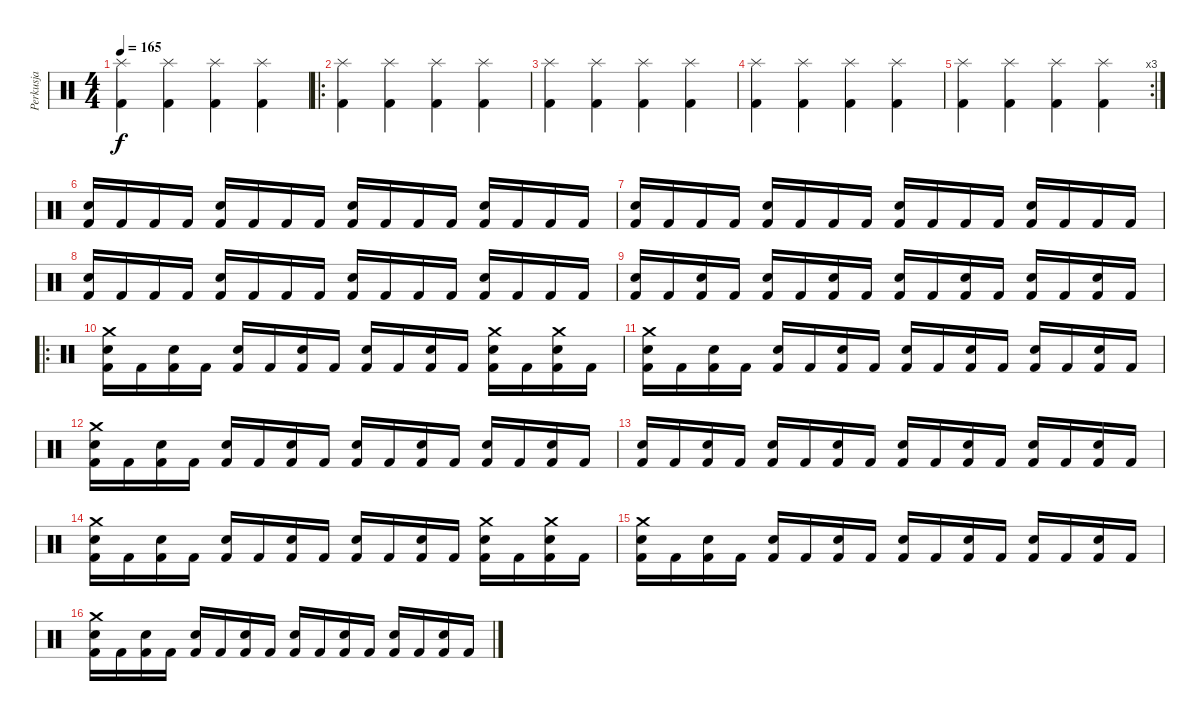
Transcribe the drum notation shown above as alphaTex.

\track ("Perkusja" "Perkusja") {instrument percussion}
\staff {score}
\articulation defaults
\ts (4 4)
\tempo 165
\clef neutral
\ks c
("Splash (hit)" "Kick (hit) 2").4{dy f} ("Splash (hit)" "Kick (hit) 2").4 ("Splash (hit)" "Kick (hit) 2").4 ("Splash (hit)" "Kick (hit) 2").4 |
\ro
("Splash (hit)" "Kick (hit) 2").4 ("Splash (hit)" "Kick (hit) 2").4 ("Splash (hit)" "Kick (hit) 2").4 ("Splash (hit)" "Kick (hit) 2").4 |
("Splash (hit)" "Kick (hit) 2").4 ("Splash (hit)" "Kick (hit) 2").4 ("Splash (hit)" "Kick (hit) 2").4 ("Splash (hit)" "Kick (hit) 2").4 |
("Splash (hit)" "Kick (hit) 2").4 ("Splash (hit)" "Kick (hit) 2").4 ("Splash (hit)" "Kick (hit) 2").4 ("Splash (hit)" "Kick (hit) 2").4 |
\rc 3
("Splash (hit)" "Kick (hit) 2").4 ("Splash (hit)" "Kick (hit) 2").4 ("Splash (hit)" "Kick (hit) 2").4 ("Splash (hit)" "Kick (hit) 2").4 |
("Snare (hit) 2" "Kick (hit) 2").16 "Kick (hit) 2".16 "Kick (hit) 2".16 "Kick (hit) 2".16 ("Snare (hit) 2" "Kick (hit) 2").16 "Kick (hit) 2".16 "Kick (hit) 2".16 "Kick (hit) 2".16 ("Snare (hit) 2" "Kick (hit) 2").16 "Kick (hit) 2".16 "Kick (hit) 2".16 "Kick (hit) 2".16 ("Snare (hit) 2" "Kick (hit) 2").16 "Kick (hit) 2".16 "Kick (hit) 2".16 "Kick (hit) 2".16 |
("Snare (hit) 2" "Kick (hit) 2").16 "Kick (hit) 2".16 "Kick (hit) 2".16 "Kick (hit) 2".16 ("Snare (hit) 2" "Kick (hit) 2").16 "Kick (hit) 2".16 "Kick (hit) 2".16 "Kick (hit) 2".16 ("Snare (hit) 2" "Kick (hit) 2").16 "Kick (hit) 2".16 "Kick (hit) 2".16 "Kick (hit) 2".16 ("Snare (hit) 2" "Kick (hit) 2").16 "Kick (hit) 2".16 "Kick (hit) 2".16 "Kick (hit) 2".16 |
("Snare (hit) 2" "Kick (hit) 2").16 "Kick (hit) 2".16 "Kick (hit) 2".16 "Kick (hit) 2".16 ("Snare (hit) 2" "Kick (hit) 2").16 "Kick (hit) 2".16 "Kick (hit) 2".16 "Kick (hit) 2".16 ("Snare (hit) 2" "Kick (hit) 2").16 "Kick (hit) 2".16 "Kick (hit) 2".16 "Kick (hit) 2".16 ("Snare (hit) 2" "Kick (hit) 2").16 "Kick (hit) 2".16 "Kick (hit) 2".16 "Kick (hit) 2".16 |
("Snare (hit) 2" "Kick (hit) 2").16 "Kick (hit) 2".16 ("Snare (hit) 2" "Kick (hit) 2").16 "Kick (hit) 2".16 ("Snare (hit) 2" "Kick (hit) 2").16 "Kick (hit) 2".16 ("Snare (hit) 2" "Kick (hit) 2").16 "Kick (hit) 2".16 ("Snare (hit) 2" "Kick (hit) 2").16 "Kick (hit) 2".16 ("Snare (hit) 2" "Kick (hit) 2").16 "Kick (hit) 2".16 ("Snare (hit) 2" "Kick (hit) 2").16 "Kick (hit) 2".16 ("Snare (hit) 2" "Kick (hit) 2").16 "Kick (hit) 2".16 |
\ro
("Crash medium (hit)" "Snare (hit) 2" "Kick (hit) 2").16 "Kick (hit) 2".16 ("Snare (hit) 2" "Kick (hit) 2").16 "Kick (hit) 2".16 ("Snare (hit) 2" "Kick (hit) 2").16 "Kick (hit) 2".16 ("Snare (hit) 2" "Kick (hit) 2").16 "Kick (hit) 2".16 ("Snare (hit) 2" "Kick (hit) 2").16 "Kick (hit) 2".16 ("Snare (hit) 2" "Kick (hit) 2").16 "Kick (hit) 2".16 ("Crash medium (hit)" "Snare (hit) 2" "Kick (hit) 2").16 "Kick (hit) 2".16 ("Crash medium (hit)" "Snare (hit) 2" "Kick (hit) 2").16 "Kick (hit) 2".16 |
("Crash medium (hit)" "Snare (hit) 2" "Kick (hit) 2").16 "Kick (hit) 2".16 ("Snare (hit) 2" "Kick (hit) 2").16 "Kick (hit) 2".16 ("Snare (hit) 2" "Kick (hit) 2").16 "Kick (hit) 2".16 ("Snare (hit) 2" "Kick (hit) 2").16 "Kick (hit) 2".16 ("Snare (hit) 2" "Kick (hit) 2").16 "Kick (hit) 2".16 ("Snare (hit) 2" "Kick (hit) 2").16 "Kick (hit) 2".16 ("Snare (hit) 2" "Kick (hit) 2").16 "Kick (hit) 2".16 ("Snare (hit) 2" "Kick (hit) 2").16 "Kick (hit) 2".16 |
("Crash medium (hit)" "Snare (hit) 2" "Kick (hit) 2").16 "Kick (hit) 2".16 ("Snare (hit) 2" "Kick (hit) 2").16 "Kick (hit) 2".16 ("Snare (hit) 2" "Kick (hit) 2").16 "Kick (hit) 2".16 ("Snare (hit) 2" "Kick (hit) 2").16 "Kick (hit) 2".16 ("Snare (hit) 2" "Kick (hit) 2").16 "Kick (hit) 2".16 ("Snare (hit) 2" "Kick (hit) 2").16 "Kick (hit) 2".16 ("Snare (hit) 2" "Kick (hit) 2").16 "Kick (hit) 2".16 ("Snare (hit) 2" "Kick (hit) 2").16 "Kick (hit) 2".16 |
("Snare (hit) 2" "Kick (hit) 2").16 "Kick (hit) 2".16 ("Snare (hit) 2" "Kick (hit) 2").16 "Kick (hit) 2".16 ("Snare (hit) 2" "Kick (hit) 2").16 "Kick (hit) 2".16 ("Snare (hit) 2" "Kick (hit) 2").16 "Kick (hit) 2".16 ("Snare (hit) 2" "Kick (hit) 2").16 "Kick (hit) 2".16 ("Snare (hit) 2" "Kick (hit) 2").16 "Kick (hit) 2".16 ("Snare (hit) 2" "Kick (hit) 2").16 "Kick (hit) 2".16 ("Snare (hit) 2" "Kick (hit) 2").16 "Kick (hit) 2".16 |
("Crash medium (hit)" "Snare (hit) 2" "Kick (hit) 2").16 "Kick (hit) 2".16 ("Snare (hit) 2" "Kick (hit) 2").16 "Kick (hit) 2".16 ("Snare (hit) 2" "Kick (hit) 2").16 "Kick (hit) 2".16 ("Snare (hit) 2" "Kick (hit) 2").16 "Kick (hit) 2".16 ("Snare (hit) 2" "Kick (hit) 2").16 "Kick (hit) 2".16 ("Snare (hit) 2" "Kick (hit) 2").16 "Kick (hit) 2".16 ("Crash medium (hit)" "Snare (hit) 2" "Kick (hit) 2").16 "Kick (hit) 2".16 ("Crash medium (hit)" "Snare (hit) 2" "Kick (hit) 2").16 "Kick (hit) 2".16 |
("Crash medium (hit)" "Snare (hit) 2" "Kick (hit) 2").16 "Kick (hit) 2".16 ("Snare (hit) 2" "Kick (hit) 2").16 "Kick (hit) 2".16 ("Snare (hit) 2" "Kick (hit) 2").16 "Kick (hit) 2".16 ("Snare (hit) 2" "Kick (hit) 2").16 "Kick (hit) 2".16 ("Snare (hit) 2" "Kick (hit) 2").16 "Kick (hit) 2".16 ("Snare (hit) 2" "Kick (hit) 2").16 "Kick (hit) 2".16 ("Snare (hit) 2" "Kick (hit) 2").16 "Kick (hit) 2".16 ("Snare (hit) 2" "Kick (hit) 2").16 "Kick (hit) 2".16 |
("Crash medium (hit)" "Snare (hit) 2" "Kick (hit) 2").16 "Kick (hit) 2".16 ("Snare (hit) 2" "Kick (hit) 2").16 "Kick (hit) 2".16 ("Snare (hit) 2" "Kick (hit) 2").16 "Kick (hit) 2".16 ("Snare (hit) 2" "Kick (hit) 2").16 "Kick (hit) 2".16 ("Snare (hit) 2" "Kick (hit) 2").16 "Kick (hit) 2".16 ("Snare (hit) 2" "Kick (hit) 2").16 "Kick (hit) 2".16 ("Snare (hit) 2" "Kick (hit) 2").16 "Kick (hit) 2".16 ("Snare (hit) 2" "Kick (hit) 2").16 "Kick (hit) 2".16
